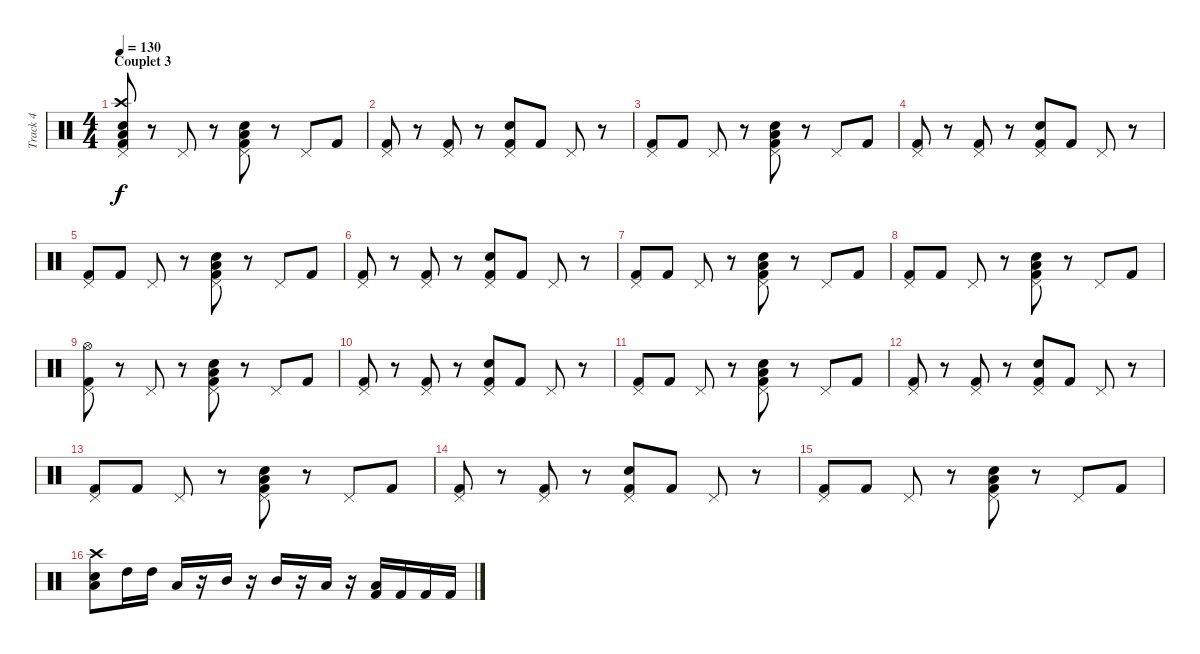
\track ("Track 4" "Track 4") {instrument percussion}
\staff {score}
\articulation defaults
\ts (4 4)
\section ("" "Couplet 3")
\tempo 130
\clef neutral
\ks c
("Low Floor Tom (hit)" "Snare (hit) 2" "Crash high (hit)" "Kick (hit) 2" "Pedal Hi-Hat (hit)").8{dy f} r.8 "Pedal Hi-Hat (hit)".8 r.8 ("Low Tom (hit)" "Snare (hit) 2" "Kick (hit) 2" "Pedal Hi-Hat (hit)").8 r.8 "Pedal Hi-Hat (hit)".8 "Kick (hit) 2".8 |
("Kick (hit) 2" "Pedal Hi-Hat (hit)").8 r.8 ("Pedal Hi-Hat (hit)" "Kick (hit) 2").8 r.8 ("Pedal Hi-Hat (hit)" "Kick (hit) 2" "Snare (hit) 2").8 "Kick (hit) 2".8 "Pedal Hi-Hat (hit)".8 r.8 |
("Kick (hit) 2" "Pedal Hi-Hat (hit)").8 "Kick (hit) 2".8 "Pedal Hi-Hat (hit)".8 r.8 ("Low Tom (hit)" "Snare (hit) 2" "Kick (hit) 2" "Pedal Hi-Hat (hit)").8 r.8 "Pedal Hi-Hat (hit)".8 "Kick (hit) 2".8 |
("Kick (hit) 2" "Pedal Hi-Hat (hit)").8 r.8 ("Pedal Hi-Hat (hit)" "Kick (hit) 2").8 r.8 ("Pedal Hi-Hat (hit)" "Kick (hit) 2" "Snare (hit) 2").8 "Kick (hit) 2".8 "Pedal Hi-Hat (hit)".8 r.8 |
("Kick (hit) 2" "Pedal Hi-Hat (hit)").8 "Kick (hit) 2".8 "Pedal Hi-Hat (hit)".8 r.8 ("Low Tom (hit)" "Snare (hit) 2" "Kick (hit) 2" "Pedal Hi-Hat (hit)").8 r.8 "Pedal Hi-Hat (hit)".8 "Kick (hit) 2".8 |
("Kick (hit) 2" "Pedal Hi-Hat (hit)").8 r.8 ("Pedal Hi-Hat (hit)" "Kick (hit) 2").8 r.8 ("Pedal Hi-Hat (hit)" "Kick (hit) 2" "Snare (hit) 2").8 "Kick (hit) 2".8 "Pedal Hi-Hat (hit)".8 r.8 |
("Kick (hit) 2" "Pedal Hi-Hat (hit)").8 "Kick (hit) 2".8 "Pedal Hi-Hat (hit)".8 r.8 ("Low Tom (hit)" "Snare (hit) 2" "Kick (hit) 2" "Pedal Hi-Hat (hit)").8 r.8 "Pedal Hi-Hat (hit)".8 "Kick (hit) 2".8 |
("Kick (hit) 2" "Pedal Hi-Hat (hit)").8 "Kick (hit) 2".8 "Pedal Hi-Hat (hit)".8 r.8 ("Low Tom (hit)" "Snare (hit) 2" "Kick (hit) 2" "Pedal Hi-Hat (hit)").8 r.8 "Pedal Hi-Hat (hit)".8 "Kick (hit) 2".8 |
("Kick (hit) 2" "Pedal Hi-Hat (hit)" "Hi-Hat (open)").8 r.8 "Pedal Hi-Hat (hit)".8 r.8 ("Low Tom (hit)" "Snare (hit) 2" "Kick (hit) 2" "Pedal Hi-Hat (hit)").8 r.8 "Pedal Hi-Hat (hit)".8 "Kick (hit) 2".8 |
("Kick (hit) 2" "Pedal Hi-Hat (hit)").8 r.8 ("Pedal Hi-Hat (hit)" "Kick (hit) 2").8 r.8 ("Pedal Hi-Hat (hit)" "Kick (hit) 2" "Snare (hit) 2").8 "Kick (hit) 2".8 "Pedal Hi-Hat (hit)".8 r.8 |
("Kick (hit) 2" "Pedal Hi-Hat (hit)").8 "Kick (hit) 2".8 "Pedal Hi-Hat (hit)".8 r.8 ("Low Tom (hit)" "Snare (hit) 2" "Kick (hit) 2" "Pedal Hi-Hat (hit)").8 r.8 "Pedal Hi-Hat (hit)".8 "Kick (hit) 2".8 |
("Kick (hit) 2" "Pedal Hi-Hat (hit)").8 r.8 ("Pedal Hi-Hat (hit)" "Kick (hit) 2").8 r.8 ("Pedal Hi-Hat (hit)" "Kick (hit) 2" "Snare (hit) 2").8 "Kick (hit) 2".8 "Pedal Hi-Hat (hit)".8 r.8 |
("Kick (hit) 2" "Pedal Hi-Hat (hit)").8 "Kick (hit) 2".8 "Pedal Hi-Hat (hit)".8 r.8 ("Low Tom (hit)" "Snare (hit) 2" "Kick (hit) 2" "Pedal Hi-Hat (hit)").8 r.8 "Pedal Hi-Hat (hit)".8 "Kick (hit) 2".8 |
("Kick (hit) 2" "Pedal Hi-Hat (hit)").8 r.8 ("Pedal Hi-Hat (hit)" "Kick (hit) 2").8 r.8 ("Pedal Hi-Hat (hit)" "Kick (hit) 2" "Snare (hit) 2").8 "Kick (hit) 2".8 "Pedal Hi-Hat (hit)".8 r.8 |
("Kick (hit) 2" "Pedal Hi-Hat (hit)").8 "Kick (hit) 2".8 "Pedal Hi-Hat (hit)".8 r.8 ("Low Tom (hit)" "Snare (hit) 2" "Kick (hit) 2" "Pedal Hi-Hat (hit)").8 r.8 "Pedal Hi-Hat (hit)".8 "Kick (hit) 2".8 |
("Low Tom (hit)" "Snare (hit) 2" "Crash high (hit)").8 "High Tom (hit)".16 "High Tom (hit)".16 "Low Floor Tom (hit)".16 r.16 "Mid Tom (hit)".16 r.16 "Mid Tom (hit)".16 r.16 "Low Floor Tom (hit)".16 r.16 ("Low Floor Tom (hit)" "Kick (hit) 2").16 "Kick (hit) 2".16 "Kick (hit) 2".16 "Kick (hit) 2".16
